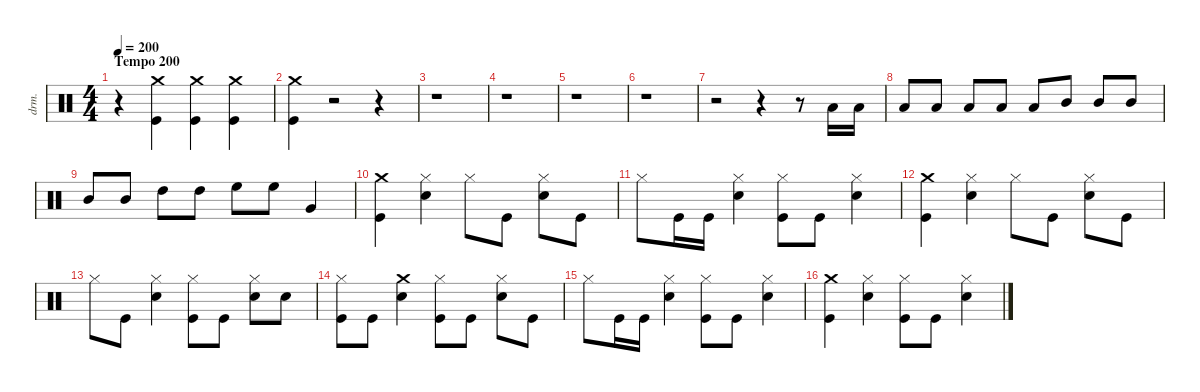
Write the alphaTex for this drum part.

\defaultSystemsLayout 4
\hideDynamics
\bracketExtendMode nobrackets
\otherSystemsTrackNameOrientation horizontal
\track ("Lars Ulrich (Drums)" "drm.") {instrument percussion}
\staff {score}
\articulation defaults
\ts (4 4)
\section ("" "Tempo 200")
\tempo 200
\clef neutral
\ks c
r.4{dy f beam Down} ("Kick (hit)" "Crash medium (hit)").4{beam Down} ("Kick (hit)" "Crash medium (hit)").4{beam Down} ("Kick (hit)" "Crash medium (hit)").4{beam Down} |
("Kick (hit)" "Crash medium (hit)").4{beam Down} r.2{beam Down} r.4{beam Down} |
r.1{beam Down} |
r.1{beam Down} |
r.1{beam Down} |
r.1{beam Down} |
r.2{beam Down} r.4{beam Down} r.8{beam Down} "Low Tom (hit)".16{beam Up} "Low Tom (hit)".16{beam Up} |
"Low Tom (hit)".8{beam Up} "Low Tom (hit)".8{beam Up} "Low Tom (hit)".8{beam Up} "Low Tom (hit)".8{beam Up} "Low Tom (hit)".8{beam Up} "Mid Tom (hit)".8{beam Up} "Mid Tom (hit)".8{beam Up} "Mid Tom (hit)".8{beam Up} |
"Mid Tom (hit)".8{beam Up} "Mid Tom (hit)".8{beam Up} "High Tom (hit)".8{beam Down} "High Tom (hit)".8{beam Down} "High Floor Tom (hit)".8{beam Down} "High Floor Tom (hit)".8{beam Down} "Very Low Tom (hit)".4{beam Up} |
("Kick (hit)" "Crash medium (hit)").4{beam Down} ("Hi-Hat (closed)" "Snare (hit) 2").4{beam Down} "Hi-Hat (closed)".8{beam Down} "Kick (hit)".8{beam Down} ("Snare (hit) 2" "Hi-Hat (closed)").8{beam Down} "Kick (hit)".8{beam Down} |
"Hi-Hat (closed)".8{beam Down} "Kick (hit)".16{beam Down} "Kick (hit)".16{beam Down} ("Snare (hit) 2" "Hi-Hat (closed)").4{beam Down} ("Kick (hit)" "Hi-Hat (closed)").8{beam Down} "Kick (hit)".8{beam Down} ("Snare (hit) 2" "Hi-Hat (closed)").4{beam Down} |
("Kick (hit)" "Crash medium (hit)").4{beam Down} ("Snare (hit) 2" "Hi-Hat (closed)").4{beam Down} "Hi-Hat (closed)".8{beam Down} "Kick (hit)".8{beam Down} ("Snare (hit) 2" "Hi-Hat (closed)").8{beam Down} "Kick (hit)".8{beam Down} |
"Hi-Hat (closed)".8{beam Down} "Kick (hit)".8{beam Down} ("Snare (hit) 2" "Hi-Hat (closed)").4{beam Down} ("Kick (hit)" "Hi-Hat (closed)").8{beam Down} "Kick (hit)".8{beam Down} ("Snare (hit) 2" "Hi-Hat (closed)").8{beam Down} "Snare (hit) 2".8{beam Down} |
("Hi-Hat (closed)" "Kick (hit)").8{beam Down} "Kick (hit)".8{beam Down} ("Crash medium (hit)" "Snare (hit) 2").4{beam Down} ("Hi-Hat (closed)" "Kick (hit)").8{beam Down} "Kick (hit)".8{beam Down} ("Snare (hit) 2" "Hi-Hat (closed)").8{beam Down} "Kick (hit)".8{beam Down} |
"Hi-Hat (closed)".8{beam Down} "Kick (hit)".16{beam Down} "Kick (hit)".16{beam Down} ("Snare (hit) 2" "Hi-Hat (closed)").4{beam Down} ("Kick (hit)" "Hi-Hat (closed)").8{beam Down} "Kick (hit)".8{beam Down} ("Snare (hit) 2" "Hi-Hat (closed)").4{beam Down} |
("Kick (hit)" "Crash medium (hit)").4{beam Down} ("Snare (hit) 2" "Hi-Hat (closed)").4{beam Down} ("Hi-Hat (closed)" "Kick (hit)").8{beam Down} "Kick (hit)".8{beam Down} ("Snare (hit) 2" "Hi-Hat (closed)").4{beam Down}
